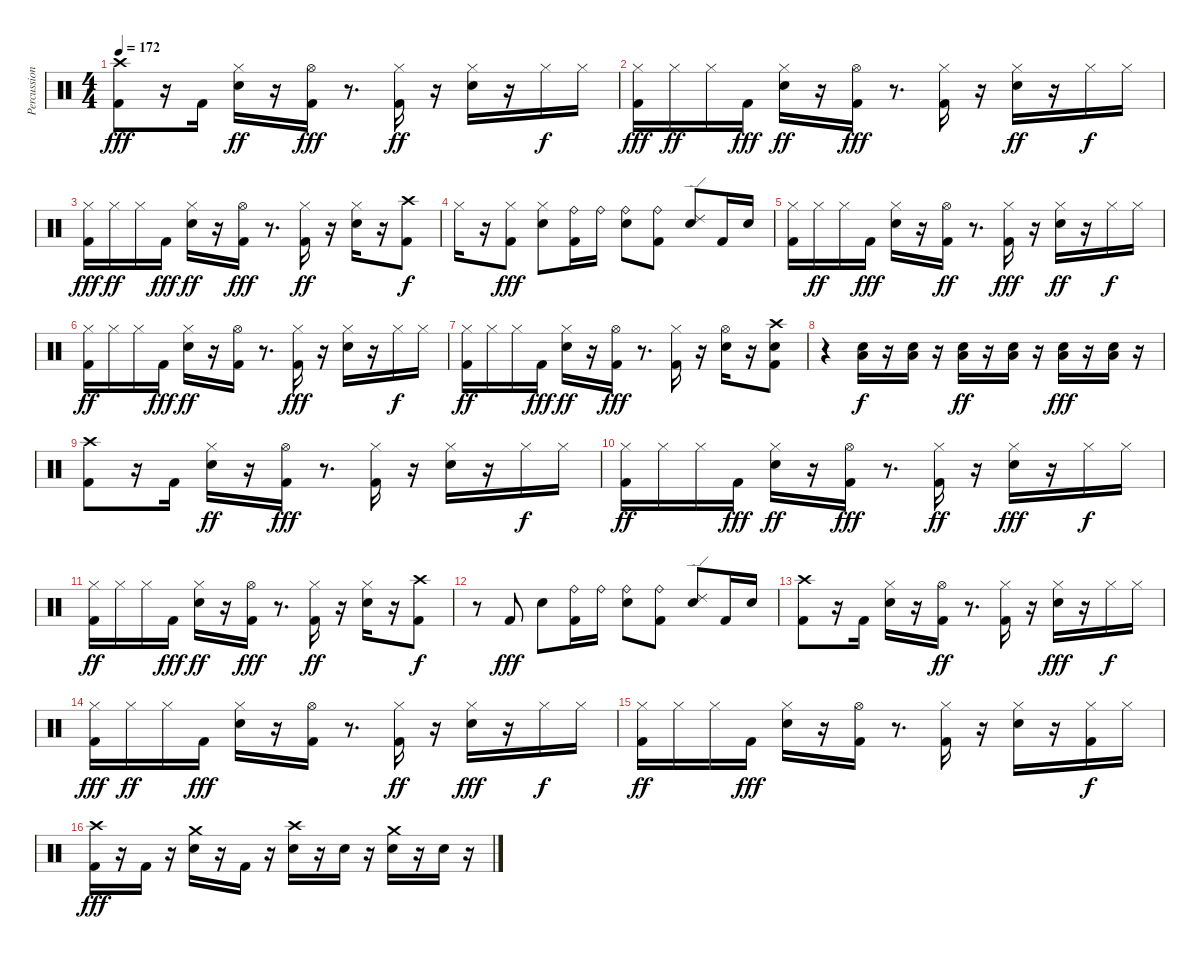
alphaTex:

\track ("Percussion" "Percussion") {instrument percussion}
\staff {score}
\articulation defaults
\ts (4 4)
\tempo 172
\clef neutral
\ks c
("Kick (hit) 2" "Crash high (hit)").8{dy fff} r.16 "Kick (hit) 2".16 ("Snare (hit) 2" "Hi-Hat (closed)").16{dy ff} r.16 ("Hi-Hat (open)" "Kick (hit) 2").16{dy fff} r.8{d} ("Kick (hit) 2" "Hi-Hat (closed)").16{dy ff} r.16 ("Snare (hit) 2" "Hi-Hat (closed)").16 r.16 "Hi-Hat (closed)".16{dy f} "Hi-Hat (closed)".16 |
("Hi-Hat (closed)" "Kick (hit) 2").16{dy fff} "Hi-Hat (closed)".16{dy ff} "Hi-Hat (closed)".16 "Kick (hit) 2".16{dy fff} ("Snare (hit) 2" "Hi-Hat (closed)").16{dy ff} r.16 ("Hi-Hat (open)" "Kick (hit) 2").16{dy fff} r.8{d} ("Hi-Hat (closed)" "Kick (hit) 2").16 r.16 ("Snare (hit) 2" "Hi-Hat (closed)").16{dy ff} r.16 "Hi-Hat (closed)".16{dy f} "Hi-Hat (closed)".16 |
("Hi-Hat (closed)" "Kick (hit) 2").16{dy fff} "Hi-Hat (closed)".16{dy ff} "Hi-Hat (closed)".16 "Kick (hit) 2".16{dy fff} ("Snare (hit) 2" "Hi-Hat (closed)").16{dy ff} r.16 ("Hi-Hat (open)" "Kick (hit) 2").16{dy fff} r.8{d} ("Kick (hit) 2" "Hi-Hat (closed)").16{dy ff} r.16 ("Snare (hit) 2" "Hi-Hat (closed)").16 r.16 ("Crash high (hit)" "Kick (hit) 2").8{dy f} |
"Hi-Hat (closed)".16 r.16 ("Kick (hit) 2" "Hi-Hat (closed)").8{dy fff} ("Snare (hit) 2" "Hi-Hat (closed)").8 ("Ride (bell)" "Kick (hit) 2").16 "Ride (bell)".16 ("Ride (bell)" "Snare (hit) 2").8 ("Ride (bell)" "Kick (hit) 2").8 ("Ride (edge) 2" "Snare (hit) 2").8 "Kick (hit) 2".16 "Snare (hit) 2".16 |
("Hi-Hat (closed)" "Kick (hit) 2").16 "Hi-Hat (closed)".16{dy ff} "Hi-Hat (closed)".16 "Kick (hit) 2".16{dy fff} ("Hi-Hat (closed)" "Snare (hit) 2").16 r.16 ("Kick (hit) 2" "Hi-Hat (open)").16{dy ff} r.8{d} ("Hi-Hat (closed)" "Kick (hit) 2").16{dy fff} r.16 ("Snare (hit) 2" "Hi-Hat (closed)").16{dy ff} r.16 "Hi-Hat (closed)".16{dy f} "Hi-Hat (closed)".16 |
("Kick (hit) 2" "Hi-Hat (closed)").16{dy ff} "Hi-Hat (closed)".16 "Hi-Hat (closed)".16 "Kick (hit) 2".16{dy fff} ("Snare (hit) 2" "Hi-Hat (closed)").16{dy ff} r.16 ("Kick (hit) 2" "Hi-Hat (open)").16 r.8{d} ("Hi-Hat (closed)" "Kick (hit) 2").16{dy fff} r.16 ("Hi-Hat (closed)" "Snare (hit) 2").16 r.16 "Hi-Hat (closed)".16{dy f} "Hi-Hat (closed)".16 |
("Kick (hit) 2" "Hi-Hat (closed)").16{dy ff} "Hi-Hat (closed)".16 "Hi-Hat (closed)".16 "Kick (hit) 2".16{dy fff} ("Snare (hit) 2" "Hi-Hat (closed)").16{dy ff} r.16 ("Hi-Hat (open)" "Kick (hit) 2").16{dy fff} r.8{d} ("Hi-Hat (closed)" "Kick (hit) 2").16 r.16 ("Hi-Hat (open)" "Snare (hit) 2").16 r.16 ("Crash high (hit)" "Kick (hit) 2" "Snare (hit) 2").8 |
r.4 ("Snare (hit) 2" "Low Floor Tom (hit)").16{dy f} r.16 ("Low Floor Tom (hit)" "Snare (hit) 2").16 r.16 ("Low Floor Tom (hit)" "Snare (hit) 2").16{dy ff} r.16 ("Low Floor Tom (hit)" "Snare (hit) 2").16 r.16 ("Snare (hit) 2" "Low Floor Tom (hit)").16{dy fff} r.16 ("Low Floor Tom (hit)" "Snare (hit) 2").16 r.16 |
("Kick (hit) 2" "Crash high (hit)").8 r.16 "Kick (hit) 2".16 ("Snare (hit) 2" "Hi-Hat (closed)").16{dy ff} r.16 ("Hi-Hat (open)" "Kick (hit) 2").16{dy fff} r.8{d} ("Hi-Hat (closed)" "Kick (hit) 2").16 r.16 ("Hi-Hat (closed)" "Snare (hit) 2").16 r.16 "Hi-Hat (closed)".16{dy f} "Hi-Hat (closed)".16 |
("Kick (hit) 2" "Hi-Hat (closed)").16{dy ff} "Hi-Hat (closed)".16 "Hi-Hat (closed)".16 "Kick (hit) 2".16{dy fff} ("Snare (hit) 2" "Hi-Hat (closed)").16{dy ff} r.16 ("Hi-Hat (open)" "Kick (hit) 2").16{dy fff} r.8{d} ("Kick (hit) 2" "Hi-Hat (closed)").16{dy ff} r.16 ("Hi-Hat (closed)" "Snare (hit) 2").16{dy fff} r.16 "Hi-Hat (closed)".16{dy f} "Hi-Hat (closed)".16 |
("Kick (hit) 2" "Hi-Hat (closed)").16{dy ff} "Hi-Hat (closed)".16 "Hi-Hat (closed)".16 "Kick (hit) 2".16{dy fff} ("Snare (hit) 2" "Hi-Hat (closed)").16{dy ff} r.16 ("Hi-Hat (open)" "Kick (hit) 2").16{dy fff} r.8{d} ("Kick (hit) 2" "Hi-Hat (closed)").16{dy ff} r.16 ("Snare (hit) 2" "Hi-Hat (closed)").16 r.16 ("Crash high (hit)" "Kick (hit) 2").8{dy f} |
r.8 "Kick (hit) 2".8{dy fff} "Snare (hit) 2".8 ("Ride (bell)" "Kick (hit) 2").16 "Ride (bell)".16 ("Ride (bell)" "Snare (hit) 2").8 ("Ride (bell)" "Kick (hit) 2").8 ("Ride (edge) 2" "Snare (hit) 2").8 "Kick (hit) 2".16 "Snare (hit) 2".16 |
("Kick (hit) 2" "Crash high (hit)").8 r.16 "Kick (hit) 2".16 ("Hi-Hat (closed)" "Snare (hit) 2").16 r.16 ("Kick (hit) 2" "Hi-Hat (open)").16{dy ff} r.8{d} ("Kick (hit) 2" "Hi-Hat (closed)").16 r.16 ("Hi-Hat (closed)" "Snare (hit) 2").16{dy fff} r.16 "Hi-Hat (closed)".16{dy f} "Hi-Hat (closed)".16 |
("Hi-Hat (closed)" "Kick (hit) 2").16{dy fff} "Hi-Hat (closed)".16{dy ff} "Hi-Hat (closed)".16 "Kick (hit) 2".16{dy fff} ("Hi-Hat (closed)" "Snare (hit) 2").16 r.16 ("Hi-Hat (open)" "Kick (hit) 2").16 r.8{d} ("Kick (hit) 2" "Hi-Hat (closed)").16{dy ff} r.16 ("Hi-Hat (closed)" "Snare (hit) 2").16{dy fff} r.16 "Hi-Hat (closed)".16{dy f} "Hi-Hat (closed)".16 |
("Kick (hit) 2" "Hi-Hat (closed)").16{dy ff} "Hi-Hat (closed)".16 "Hi-Hat (closed)".16 "Kick (hit) 2".16{dy fff} ("Hi-Hat (closed)" "Snare (hit) 2").16 r.16 ("Hi-Hat (open)" "Kick (hit) 2").16 r.8{d} ("Hi-Hat (closed)" "Kick (hit) 2").16 r.16 ("Hi-Hat (closed)" "Snare (hit) 2").16 r.16 ("Hi-Hat (closed)" "Kick (hit) 2").16{dy f} "Hi-Hat (closed)".16 |
("Kick (hit) 2" "Crash high (hit)").16{dy fff} r.16 "Kick (hit) 2".16 r.16 ("Snare (hit) 2" "Crash medium (hit)").16 r.16 "Kick (hit) 2".16 r.16 ("Crash high (hit)" "Snare (hit) 2").16 r.16 "Snare (hit) 2".16 r.16 ("Snare (hit) 2" "Crash medium (hit)").16 r.16 "Snare (hit) 2".16 r.16
